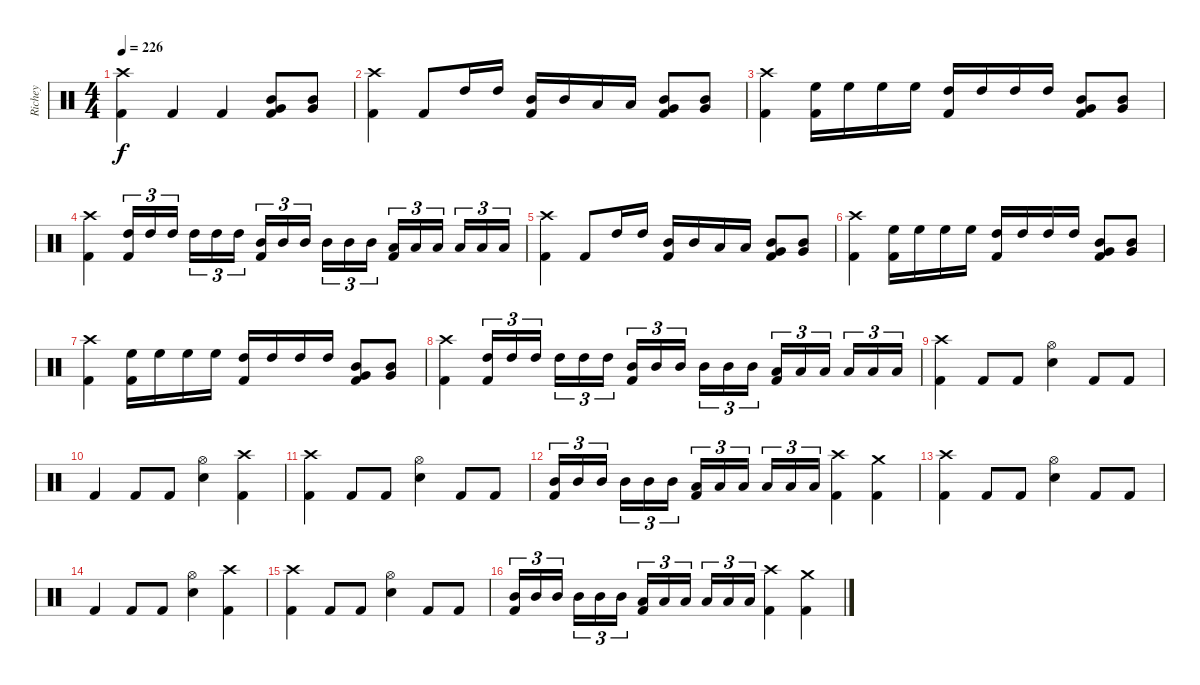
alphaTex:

\track ("Richey" "Richey") {instrument percussion}
\staff {score}
\articulation defaults
\ts (4 4)
\tempo 226
\tempo 140
\tempo 226
\clef neutral
\ks c
("Crash high (hit)" "Kick (hit) 2").4{dy f} "Kick (hit) 2".4 "Kick (hit) 2".4 ("Mid Tom (hit)" "Very Low Tom (hit)" "Kick (hit) 2").8 ("Mid Tom (hit)" "Very Low Tom (hit)").8 |
("Crash high (hit)" "Kick (hit) 2").4 "Kick (hit) 2".8 "High Tom (hit)".16 "High Tom (hit)".16 ("Mid Tom (hit)" "Kick (hit) 2").16 "Mid Tom (hit)".16 "Low Tom (hit)".16 "Low Tom (hit)".16 ("Mid Tom (hit)" "Very Low Tom (hit)" "Kick (hit) 2").8 ("Mid Tom (hit)" "Very Low Tom (hit)").8 |
("Crash high (hit)" "Kick (hit) 2").4 ("High Floor Tom (hit)" "Kick (hit) 2").16 "High Floor Tom (hit)".16 "High Floor Tom (hit)".16 "High Floor Tom (hit)".16 ("High Tom (hit)" "Kick (hit) 2").16 "High Tom (hit)".16 "High Tom (hit)".16 "High Tom (hit)".16 ("Mid Tom (hit)" "Very Low Tom (hit)" "Kick (hit) 2").8 ("Mid Tom (hit)" "Very Low Tom (hit)").8 |
("Crash high (hit)" "Kick (hit) 2").4 ("High Tom (hit)" "Kick (hit) 2").16{tu (3 2)} "High Tom (hit)".16{tu (3 2)} "High Tom (hit)".16{tu (3 2)} "High Tom (hit)".16{tu (3 2)} "High Tom (hit)".16{tu (3 2)} "High Tom (hit)".16{tu (3 2)} ("Mid Tom (hit)" "Kick (hit) 2").16{tu (3 2)} "Mid Tom (hit)".16{tu (3 2)} "Mid Tom (hit)".16{tu (3 2)} "Mid Tom (hit)".16{tu (3 2)} "Mid Tom (hit)".16{tu (3 2)} "Mid Tom (hit)".16{tu (3 2)} ("Low Tom (hit)" "Kick (hit) 2").16{tu (3 2)} "Low Tom (hit)".16{tu (3 2)} "Low Tom (hit)".16{tu (3 2)} "Low Tom (hit)".16{tu (3 2)} "Low Tom (hit)".16{tu (3 2)} "Low Tom (hit)".16{tu (3 2)} |
("Crash high (hit)" "Kick (hit) 2").4 "Kick (hit) 2".8 "High Tom (hit)".16 "High Tom (hit)".16 ("Mid Tom (hit)" "Kick (hit) 2").16 "Mid Tom (hit)".16 "Low Tom (hit)".16 "Low Tom (hit)".16 ("Mid Tom (hit)" "Very Low Tom (hit)" "Kick (hit) 2").8 ("Mid Tom (hit)" "Very Low Tom (hit)").8 |
("Crash high (hit)" "Kick (hit) 2").4 ("High Floor Tom (hit)" "Kick (hit) 2").16 "High Floor Tom (hit)".16 "High Floor Tom (hit)".16 "High Floor Tom (hit)".16 ("High Tom (hit)" "Kick (hit) 2").16 "High Tom (hit)".16 "High Tom (hit)".16 "High Tom (hit)".16 ("Mid Tom (hit)" "Very Low Tom (hit)" "Kick (hit) 2").8 ("Mid Tom (hit)" "Very Low Tom (hit)").8 |
("Crash high (hit)" "Kick (hit) 2").4 ("High Floor Tom (hit)" "Kick (hit) 2").16 "High Floor Tom (hit)".16 "High Floor Tom (hit)".16 "High Floor Tom (hit)".16 ("High Tom (hit)" "Kick (hit) 2").16 "High Tom (hit)".16 "High Tom (hit)".16 "High Tom (hit)".16 ("Mid Tom (hit)" "Very Low Tom (hit)" "Kick (hit) 2").8 ("Mid Tom (hit)" "Very Low Tom (hit)").8 |
("Crash high (hit)" "Kick (hit) 2").4 ("High Tom (hit)" "Kick (hit) 2").16{tu (3 2)} "High Tom (hit)".16{tu (3 2)} "High Tom (hit)".16{tu (3 2)} "High Tom (hit)".16{tu (3 2)} "High Tom (hit)".16{tu (3 2)} "High Tom (hit)".16{tu (3 2)} ("Mid Tom (hit)" "Kick (hit) 2").16{tu (3 2)} "Mid Tom (hit)".16{tu (3 2)} "Mid Tom (hit)".16{tu (3 2)} "Mid Tom (hit)".16{tu (3 2)} "Mid Tom (hit)".16{tu (3 2)} "Mid Tom (hit)".16{tu (3 2)} ("Low Tom (hit)" "Kick (hit) 2").16{tu (3 2)} "Low Tom (hit)".16{tu (3 2)} "Low Tom (hit)".16{tu (3 2)} "Low Tom (hit)".16{tu (3 2)} "Low Tom (hit)".16{tu (3 2)} "Low Tom (hit)".16{tu (3 2)} |
("Crash high (hit)" "Kick (hit) 2").4 "Kick (hit) 2".8 "Kick (hit) 2".8 ("Hi-Hat (open)" "Snare (hit) 2").4 "Kick (hit) 2".8 "Kick (hit) 2".8 |
"Kick (hit) 2".4 "Kick (hit) 2".8 "Kick (hit) 2".8 ("Hi-Hat (open)" "Snare (hit) 2").4 ("Crash high (hit)" "Kick (hit) 2").4 |
("Crash high (hit)" "Kick (hit) 2").4 "Kick (hit) 2".8 "Kick (hit) 2".8 ("Hi-Hat (open)" "Snare (hit) 2").4 "Kick (hit) 2".8 "Kick (hit) 2".8 |
("Mid Tom (hit)" "Kick (hit) 2").16{tu (3 2)} "Mid Tom (hit)".16{tu (3 2)} "Mid Tom (hit)".16{tu (3 2)} "Mid Tom (hit)".16{tu (3 2)} "Mid Tom (hit)".16{tu (3 2)} "Mid Tom (hit)".16{tu (3 2)} ("Low Tom (hit)" "Kick (hit) 2").16{tu (3 2)} "Low Tom (hit)".16{tu (3 2)} "Low Tom (hit)".16{tu (3 2)} "Low Tom (hit)".16{tu (3 2)} "Low Tom (hit)".16{tu (3 2)} "Low Tom (hit)".16{tu (3 2)} ("Crash high (hit)" "Kick (hit) 2").4 ("Crash medium (hit)" "Kick (hit) 2").4 |
("Crash high (hit)" "Kick (hit) 2").4 "Kick (hit) 2".8 "Kick (hit) 2".8 ("Hi-Hat (open)" "Snare (hit) 2").4 "Kick (hit) 2".8 "Kick (hit) 2".8 |
"Kick (hit) 2".4 "Kick (hit) 2".8 "Kick (hit) 2".8 ("Hi-Hat (open)" "Snare (hit) 2").4 ("Crash high (hit)" "Kick (hit) 2").4 |
("Crash high (hit)" "Kick (hit) 2").4 "Kick (hit) 2".8 "Kick (hit) 2".8 ("Hi-Hat (open)" "Snare (hit) 2").4 "Kick (hit) 2".8 "Kick (hit) 2".8 |
("Mid Tom (hit)" "Kick (hit) 2").16{tu (3 2)} "Mid Tom (hit)".16{tu (3 2)} "Mid Tom (hit)".16{tu (3 2)} "Mid Tom (hit)".16{tu (3 2)} "Mid Tom (hit)".16{tu (3 2)} "Mid Tom (hit)".16{tu (3 2)} ("Low Tom (hit)" "Kick (hit) 2").16{tu (3 2)} "Low Tom (hit)".16{tu (3 2)} "Low Tom (hit)".16{tu (3 2)} "Low Tom (hit)".16{tu (3 2)} "Low Tom (hit)".16{tu (3 2)} "Low Tom (hit)".16{tu (3 2)} ("Crash high (hit)" "Kick (hit) 2").4 ("Crash medium (hit)" "Kick (hit) 2").4
